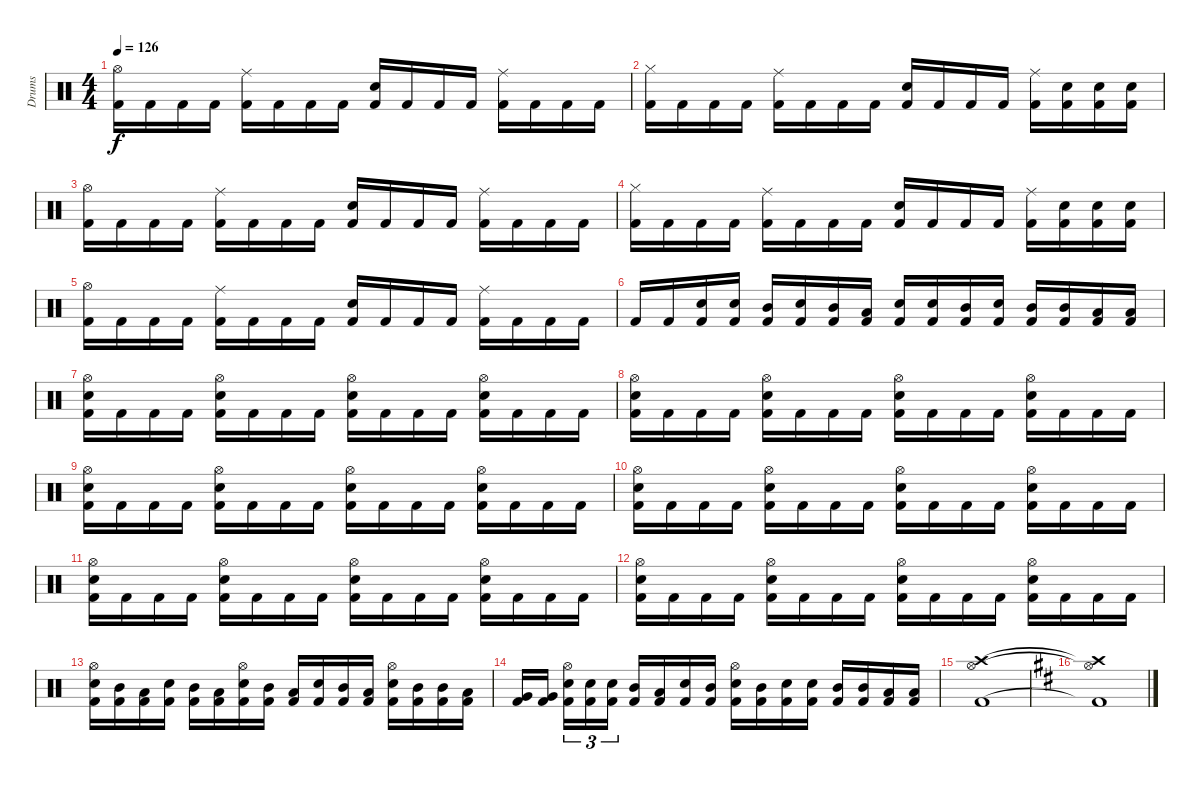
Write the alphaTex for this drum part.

\track ("Drums" "Drums") {instrument percussion}
\staff {score}
\articulation defaults
\ts (4 4)
\tempo 126
\clef neutral
\ks c
("Hi-Hat (open)" "Kick (hit) 2").16{dy f} "Kick (hit) 2".16 "Kick (hit) 2".16 "Kick (hit) 2".16 ("Ride (middle)" "Kick (hit) 2").16 "Kick (hit) 2".16 "Kick (hit) 2".16 "Kick (hit) 2".16 ("Electric Snare (hit)" "Kick (hit) 2").16 "Kick (hit) 2".16 "Kick (hit) 2".16 "Kick (hit) 2".16 ("Ride (middle)" "Kick (hit) 2").16 "Kick (hit) 2".16 "Kick (hit) 2".16 "Kick (hit) 2".16 |
("Hi-Hat (closed)" "Kick (hit) 2").16 "Kick (hit) 2".16 "Kick (hit) 2".16 "Kick (hit) 2".16 ("Ride (middle)" "Kick (hit) 2").16 "Kick (hit) 2".16 "Kick (hit) 2".16 "Kick (hit) 2".16 ("Electric Snare (hit)" "Kick (hit) 2").16 "Kick (hit) 2".16 "Kick (hit) 2".16 "Kick (hit) 2".16 ("Ride (middle)" "Kick (hit) 2").16 ("Electric Snare (hit)" "Kick (hit) 2").16 ("Electric Snare (hit)" "Kick (hit) 2").16 ("Electric Snare (hit)" "Kick (hit) 2").16 |
("Hi-Hat (open)" "Kick (hit) 2").16 "Kick (hit) 2".16 "Kick (hit) 2".16 "Kick (hit) 2".16 ("Ride (middle)" "Kick (hit) 2").16 "Kick (hit) 2".16 "Kick (hit) 2".16 "Kick (hit) 2".16 ("Electric Snare (hit)" "Kick (hit) 2").16 "Kick (hit) 2".16 "Kick (hit) 2".16 "Kick (hit) 2".16 ("Ride (middle)" "Kick (hit) 2").16 "Kick (hit) 2".16 "Kick (hit) 2".16 "Kick (hit) 2".16 |
("Hi-Hat (closed)" "Kick (hit) 2").16 "Kick (hit) 2".16 "Kick (hit) 2".16 "Kick (hit) 2".16 ("Ride (middle)" "Kick (hit) 2").16 "Kick (hit) 2".16 "Kick (hit) 2".16 "Kick (hit) 2".16 ("Electric Snare (hit)" "Kick (hit) 2").16 "Kick (hit) 2".16 "Kick (hit) 2".16 "Kick (hit) 2".16 ("Ride (middle)" "Kick (hit) 2").16 ("Electric Snare (hit)" "Kick (hit) 2").16 ("Electric Snare (hit)" "Kick (hit) 2").16 ("Electric Snare (hit)" "Kick (hit) 2").16 |
("Hi-Hat (open)" "Kick (hit) 2").16 "Kick (hit) 2".16 "Kick (hit) 2".16 "Kick (hit) 2".16 ("Ride (middle)" "Kick (hit) 2").16 "Kick (hit) 2".16 "Kick (hit) 2".16 "Kick (hit) 2".16 ("Electric Snare (hit)" "Kick (hit) 2").16 "Kick (hit) 2".16 "Kick (hit) 2".16 "Kick (hit) 2".16 ("Ride (middle)" "Kick (hit) 2").16 "Kick (hit) 2".16 "Kick (hit) 2".16 "Kick (hit) 2".16 |
"Kick (hit) 2".16 "Kick (hit) 2".16 ("Electric Snare (hit)" "Kick (hit) 2").16 ("Electric Snare (hit)" "Kick (hit) 2").16 ("Mid Tom (hit)" "Kick (hit) 2").16 ("Electric Snare (hit)" "Kick (hit) 2").16 ("Mid Tom (hit)" "Kick (hit) 2").16 ("Low Tom (hit)" "Kick (hit) 2").16 ("Electric Snare (hit)" "Kick (hit) 2").16 ("Electric Snare (hit)" "Kick (hit) 2").16 ("Mid Tom (hit)" "Kick (hit) 2").16 ("Electric Snare (hit)" "Kick (hit) 2").16 ("Mid Tom (hit)" "Kick (hit) 2").16 ("Mid Tom (hit)" "Kick (hit) 2").16 ("Low Tom (hit)" "Kick (hit) 2").16 ("Low Floor Tom (hit)" "Kick (hit) 2").16 |
("Electric Snare (hit)" "Hi-Hat (open)" "Kick (hit) 2").16 "Kick (hit) 2".16 "Kick (hit) 2".16 "Kick (hit) 2".16 ("Electric Snare (hit)" "Hi-Hat (open)" "Kick (hit) 2").16 "Kick (hit) 2".16 "Kick (hit) 2".16 "Kick (hit) 2".16 ("Electric Snare (hit)" "Hi-Hat (open)" "Kick (hit) 2").16 "Kick (hit) 2".16 "Kick (hit) 2".16 "Kick (hit) 2".16 ("Electric Snare (hit)" "Hi-Hat (open)" "Kick (hit) 2").16 "Kick (hit) 2".16 "Kick (hit) 2".16 "Kick (hit) 2".16 |
("Electric Snare (hit)" "Hi-Hat (open)" "Kick (hit) 2").16 "Kick (hit) 2".16 "Kick (hit) 2".16 "Kick (hit) 2".16 ("Electric Snare (hit)" "Hi-Hat (open)" "Kick (hit) 2").16 "Kick (hit) 2".16 "Kick (hit) 2".16 "Kick (hit) 2".16 ("Electric Snare (hit)" "Hi-Hat (open)" "Kick (hit) 2").16 "Kick (hit) 2".16 "Kick (hit) 2".16 "Kick (hit) 2".16 ("Electric Snare (hit)" "Hi-Hat (open)" "Kick (hit) 2").16 "Kick (hit) 2".16 "Kick (hit) 2".16 "Kick (hit) 2".16 |
("Electric Snare (hit)" "Hi-Hat (open)" "Kick (hit) 2").16 "Kick (hit) 2".16 "Kick (hit) 2".16 "Kick (hit) 2".16 ("Electric Snare (hit)" "Hi-Hat (open)" "Kick (hit) 2").16 "Kick (hit) 2".16 "Kick (hit) 2".16 "Kick (hit) 2".16 ("Electric Snare (hit)" "Hi-Hat (open)" "Kick (hit) 2").16 "Kick (hit) 2".16 "Kick (hit) 2".16 "Kick (hit) 2".16 ("Electric Snare (hit)" "Hi-Hat (open)" "Kick (hit) 2").16 "Kick (hit) 2".16 "Kick (hit) 2".16 "Kick (hit) 2".16 |
("Electric Snare (hit)" "Hi-Hat (open)" "Kick (hit) 2").16 "Kick (hit) 2".16 "Kick (hit) 2".16 "Kick (hit) 2".16 ("Electric Snare (hit)" "Hi-Hat (open)" "Kick (hit) 2").16 "Kick (hit) 2".16 "Kick (hit) 2".16 "Kick (hit) 2".16 ("Electric Snare (hit)" "Hi-Hat (open)" "Kick (hit) 2").16 "Kick (hit) 2".16 "Kick (hit) 2".16 "Kick (hit) 2".16 ("Electric Snare (hit)" "Hi-Hat (open)" "Kick (hit) 2").16 "Kick (hit) 2".16 "Kick (hit) 2".16 "Kick (hit) 2".16 |
("Electric Snare (hit)" "Hi-Hat (open)" "Kick (hit) 2").16 "Kick (hit) 2".16 "Kick (hit) 2".16 "Kick (hit) 2".16 ("Electric Snare (hit)" "Hi-Hat (open)" "Kick (hit) 2").16 "Kick (hit) 2".16 "Kick (hit) 2".16 "Kick (hit) 2".16 ("Electric Snare (hit)" "Hi-Hat (open)" "Kick (hit) 2").16 "Kick (hit) 2".16 "Kick (hit) 2".16 "Kick (hit) 2".16 ("Electric Snare (hit)" "Hi-Hat (open)" "Kick (hit) 2").16 "Kick (hit) 2".16 "Kick (hit) 2".16 "Kick (hit) 2".16 |
("Electric Snare (hit)" "Hi-Hat (open)" "Kick (hit) 2").16 "Kick (hit) 2".16 "Kick (hit) 2".16 "Kick (hit) 2".16 ("Electric Snare (hit)" "Hi-Hat (open)" "Kick (hit) 2").16 "Kick (hit) 2".16 "Kick (hit) 2".16 "Kick (hit) 2".16 ("Electric Snare (hit)" "Hi-Hat (open)" "Kick (hit) 2").16 "Kick (hit) 2".16 "Kick (hit) 2".16 "Kick (hit) 2".16 ("Electric Snare (hit)" "Hi-Hat (open)" "Kick (hit) 2").16 "Kick (hit) 2".16 "Kick (hit) 2".16 "Kick (hit) 2".16 |
("Electric Snare (hit)" "Hi-Hat (open)" "Kick (hit) 2").16 ("Mid Tom (hit)" "Kick (hit) 2").16 ("Low Tom (hit)" "Kick (hit) 2").16 ("Electric Snare (hit)" "Kick (hit) 2").16 ("Mid Tom (hit)" "Kick (hit) 2").16 ("Low Tom (hit)" "Kick (hit) 2").16 ("Electric Snare (hit)" "Hi-Hat (open)" "Kick (hit) 2").16 ("Mid Tom (hit)" "Kick (hit) 2").16 ("Low Tom (hit)" "Kick (hit) 2").16 ("Electric Snare (hit)" "Kick (hit) 2").16 ("Mid Tom (hit)" "Kick (hit) 2").16 ("Low Tom (hit)" "Kick (hit) 2").16 ("Electric Snare (hit)" "Hi-Hat (open)" "Kick (hit) 2").16 ("Mid Tom (hit)" "Kick (hit) 2").16 ("Mid Tom (hit)" "Kick (hit) 2").16 ("Low Tom (hit)" "Kick (hit) 2").16 |
("Very Low Tom (hit)" "Kick (hit) 2").16 ("Very Low Tom (hit)" "Kick (hit) 2").16{beam splitsecondary} ("Electric Snare (hit)" "Hi-Hat (open)" "Kick (hit) 2").16{tu (3 2)} ("Electric Snare (hit)" "Kick (hit) 2").16{tu (3 2)} ("Electric Snare (hit)" "Kick (hit) 2").16{tu (3 2)} ("Mid Tom (hit)" "Kick (hit) 2").16 ("Low Tom (hit)" "Kick (hit) 2").16 ("Electric Snare (hit)" "Kick (hit) 2").16 ("Mid Tom (hit)" "Kick (hit) 2").16 ("Electric Snare (hit)" "Hi-Hat (open)" "Kick (hit) 2").16 ("Mid Tom (hit)" "Kick (hit) 2").16 ("Electric Snare (hit)" "Kick (hit) 2").16 ("Electric Snare (hit)" "Kick (hit) 2").16 ("Mid Tom (hit)" "Kick (hit) 2").16 ("Mid Tom (hit)" "Kick (hit) 2").16 ("Low Tom (hit)" "Kick (hit) 2").16 ("Low Tom (hit)" "Kick (hit) 2").16 |
("Crash high (hit)" "Hi-Hat (open)" "Kick (hit) 2").1 |
\ks d
("Crash high (hit)"{t} "Hi-Hat (open)"{t} "Kick (hit) 2"{t}).1
